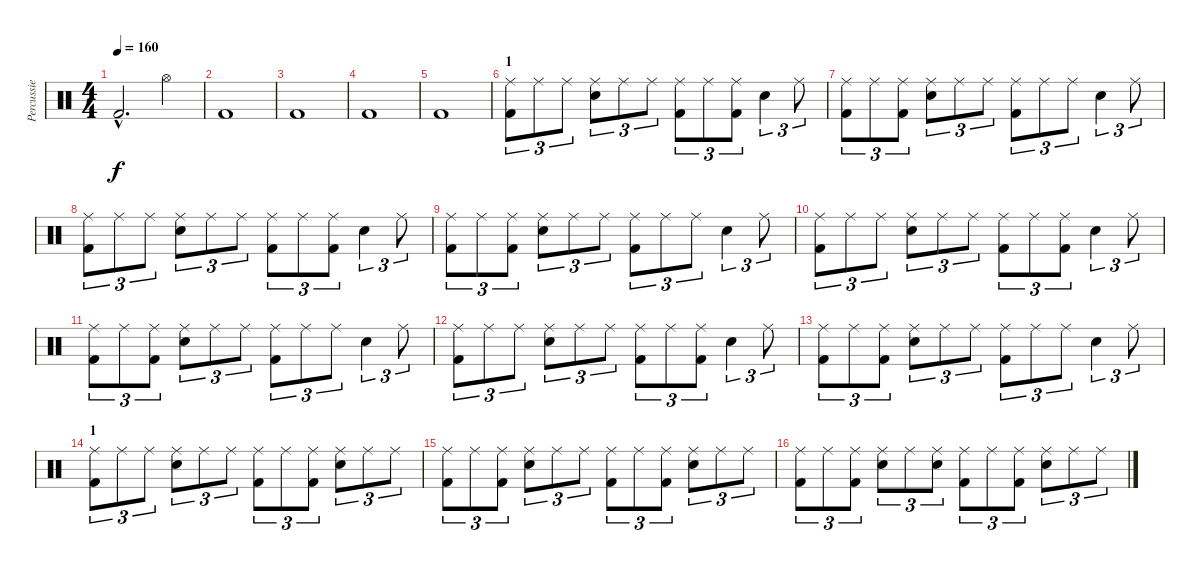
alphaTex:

\track ("Percussie" "Percussie") {instrument percussion}
\staff {score}
\articulation defaults
\ts (4 4)
\tempo 160
\clef neutral
\ks c "Kick (hit) 2"{hac}.2{d dy f} "Hi-Hat (open)".4
|
"Kick (hit) 2".1 |
"Kick (hit) 2".1 |
"Kick (hit) 2".1 |
"Kick (hit) 2".1 |
\section ("" "1")
("Ride (middle)" "Kick (hit) 2").8{tu (3 2)} "Ride (middle)".8{tu (3 2)} "Ride (middle)".8{tu (3 2)} ("Ride (middle)" "Snare (hit) 2").8{tu (3 2)} "Ride (middle)".8{tu (3 2)} "Ride (middle)".8{tu (3 2)} ("Ride (middle)" "Kick (hit) 2").8{tu (3 2)} "Ride (middle)".8{tu (3 2)} ("Ride (middle)" "Kick (hit) 2").8{tu (3 2)} "Snare (hit) 2".4{tu (3 2)} "Ride (middle)".8{tu (3 2)} |
("Ride (middle)" "Kick (hit) 2").8{tu (3 2)} "Ride (middle)".8{tu (3 2)} ("Ride (middle)" "Kick (hit) 2").8{tu (3 2)} ("Ride (middle)" "Snare (hit) 2").8{tu (3 2)} "Ride (middle)".8{tu (3 2)} "Ride (middle)".8{tu (3 2)} ("Ride (middle)" "Kick (hit) 2").8{tu (3 2)} "Ride (middle)".8{tu (3 2)} "Ride (middle)".8{tu (3 2)} "Snare (hit) 2".4{tu (3 2)} "Ride (middle)".8{tu (3 2)} |
("Ride (middle)" "Kick (hit) 2").8{tu (3 2)} "Ride (middle)".8{tu (3 2)} "Ride (middle)".8{tu (3 2)} ("Ride (middle)" "Snare (hit) 2").8{tu (3 2)} "Ride (middle)".8{tu (3 2)} "Ride (middle)".8{tu (3 2)} ("Ride (middle)" "Kick (hit) 2").8{tu (3 2)} "Ride (middle)".8{tu (3 2)} ("Ride (middle)" "Kick (hit) 2").8{tu (3 2)} "Snare (hit) 2".4{tu (3 2)} "Ride (middle)".8{tu (3 2)} |
("Ride (middle)" "Kick (hit) 2").8{tu (3 2)} "Ride (middle)".8{tu (3 2)} ("Ride (middle)" "Kick (hit) 2").8{tu (3 2)} ("Ride (middle)" "Snare (hit) 2").8{tu (3 2)} "Ride (middle)".8{tu (3 2)} "Ride (middle)".8{tu (3 2)} ("Ride (middle)" "Kick (hit) 2").8{tu (3 2)} "Ride (middle)".8{tu (3 2)} "Ride (middle)".8{tu (3 2)} "Snare (hit) 2".4{tu (3 2)} "Ride (middle)".8{tu (3 2)} |
("Ride (middle)" "Kick (hit) 2").8{tu (3 2)} "Ride (middle)".8{tu (3 2)} "Ride (middle)".8{tu (3 2)} ("Ride (middle)" "Snare (hit) 2").8{tu (3 2)} "Ride (middle)".8{tu (3 2)} "Ride (middle)".8{tu (3 2)} ("Ride (middle)" "Kick (hit) 2").8{tu (3 2)} "Ride (middle)".8{tu (3 2)} ("Ride (middle)" "Kick (hit) 2").8{tu (3 2)} "Snare (hit) 2".4{tu (3 2)} "Ride (middle)".8{tu (3 2)} |
("Ride (middle)" "Kick (hit) 2").8{tu (3 2)} "Ride (middle)".8{tu (3 2)} ("Ride (middle)" "Kick (hit) 2").8{tu (3 2)} ("Ride (middle)" "Snare (hit) 2").8{tu (3 2)} "Ride (middle)".8{tu (3 2)} "Ride (middle)".8{tu (3 2)} ("Ride (middle)" "Kick (hit) 2").8{tu (3 2)} "Ride (middle)".8{tu (3 2)} "Ride (middle)".8{tu (3 2)} "Snare (hit) 2".4{tu (3 2)} "Ride (middle)".8{tu (3 2)} |
("Ride (middle)" "Kick (hit) 2").8{tu (3 2)} "Ride (middle)".8{tu (3 2)} "Ride (middle)".8{tu (3 2)} ("Ride (middle)" "Snare (hit) 2").8{tu (3 2)} "Ride (middle)".8{tu (3 2)} "Ride (middle)".8{tu (3 2)} ("Ride (middle)" "Kick (hit) 2").8{tu (3 2)} "Ride (middle)".8{tu (3 2)} ("Ride (middle)" "Kick (hit) 2").8{tu (3 2)} "Snare (hit) 2".4{tu (3 2)} "Ride (middle)".8{tu (3 2)} |
("Ride (middle)" "Kick (hit) 2").8{tu (3 2)} "Ride (middle)".8{tu (3 2)} ("Ride (middle)" "Kick (hit) 2").8{tu (3 2)} ("Ride (middle)" "Snare (hit) 2").8{tu (3 2)} "Ride (middle)".8{tu (3 2)} "Ride (middle)".8{tu (3 2)} ("Ride (middle)" "Kick (hit) 2").8{tu (3 2)} "Ride (middle)".8{tu (3 2)} "Ride (middle)".8{tu (3 2)} "Snare (hit) 2".4{tu (3 2)} "Ride (middle)".8{tu (3 2)} |
\section ("" "1")
("Ride (middle)" "Kick (hit) 2").8{tu (3 2)} "Ride (middle)".8{tu (3 2)} "Ride (middle)".8{tu (3 2)} ("Ride (middle)" "Snare (hit) 2").8{tu (3 2)} "Ride (middle)".8{tu (3 2)} "Ride (middle)".8{tu (3 2)} ("Ride (middle)" "Kick (hit) 2").8{tu (3 2)} "Ride (middle)".8{tu (3 2)} ("Ride (middle)" "Kick (hit) 2").8{tu (3 2)} ("Ride (middle)" "Snare (hit) 2").8{tu (3 2)} "Ride (middle)".8{tu (3 2)} "Ride (middle)".8{tu (3 2)} |
("Ride (middle)" "Kick (hit) 2").8{tu (3 2)} "Ride (middle)".8{tu (3 2)} ("Ride (middle)" "Kick (hit) 2").8{tu (3 2)} ("Ride (middle)" "Snare (hit) 2").8{tu (3 2)} "Ride (middle)".8{tu (3 2)} "Ride (middle)".8{tu (3 2)} ("Ride (middle)" "Kick (hit) 2").8{tu (3 2)} "Ride (middle)".8{tu (3 2)} ("Ride (middle)" "Kick (hit) 2").8{tu (3 2)} ("Ride (middle)" "Snare (hit) 2").8{tu (3 2)} "Ride (middle)".8{tu (3 2)} "Ride (middle)".8{tu (3 2)} |
("Ride (middle)" "Kick (hit) 2").8{tu (3 2)} "Ride (middle)".8{tu (3 2)} ("Ride (middle)" "Kick (hit) 2").8{tu (3 2)} ("Ride (middle)" "Snare (hit) 2").8{tu (3 2)} "Ride (middle)".8{tu (3 2)} ("Ride (middle)" "Snare (hit) 2").8{tu (3 2)} ("Ride (middle)" "Kick (hit) 2").8{tu (3 2)} "Ride (middle)".8{tu (3 2)} ("Ride (middle)" "Kick (hit) 2").8{tu (3 2)} ("Ride (middle)" "Snare (hit) 2").8{tu (3 2)} "Ride (middle)".8{tu (3 2)} "Ride (middle)".8{tu (3 2)}
